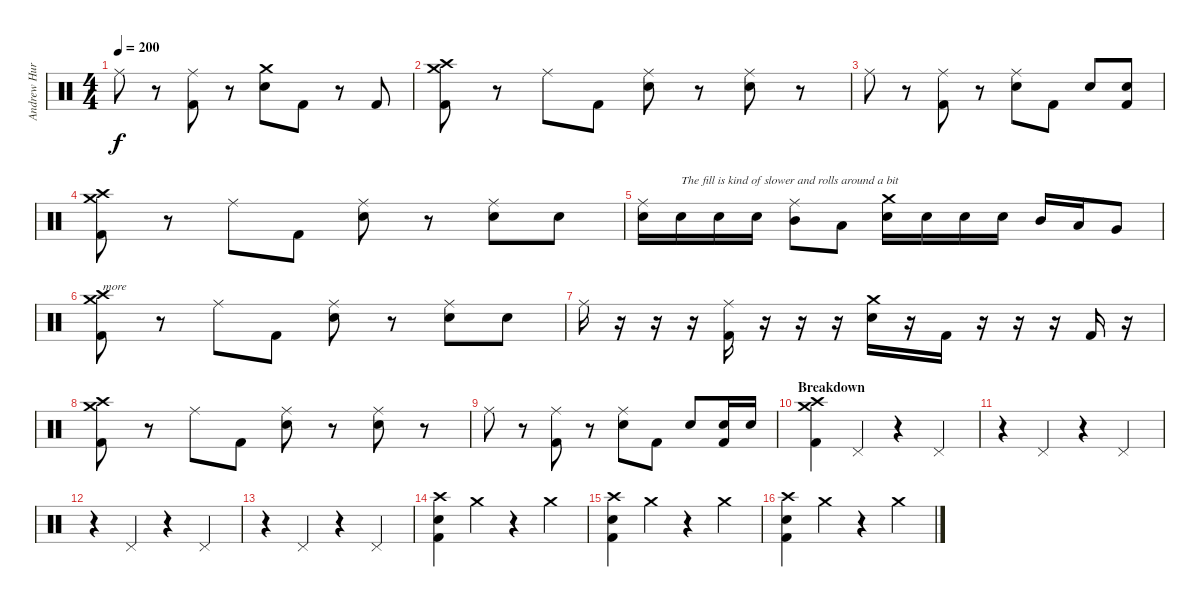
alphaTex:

\track ("Andrew Hurley (Drums)" "Andrew Hur") {instrument percussion}
\staff {score}
\articulation defaults
\ts (4 4)
\tempo 200
\clef neutral
\ks c "Ride (middle)".8{dy f}
r.8 ("Ride (middle)" "Kick (hit) 2").8 r.8 ("Crash medium (hit)" "Electric Snare (hit)").8 "Kick (hit) 2".8 r.8 "Kick (hit) 2".8 |
("Crash medium (hit)" "Crash high (hit)" "Kick (hit) 2").8 r.8 "Ride (middle)".8 "Kick (hit) 2".8 ("Ride (middle)" "Electric Snare (hit)").8 r.8 ("Ride (middle)" "Electric Snare (hit)").8 r.8 |
"Ride (middle)".8 r.8 ("Ride (middle)" "Kick (hit) 2").8 r.8 ("Ride (middle)" "Electric Snare (hit)").8 "Kick (hit) 2".8 "Electric Snare (hit)".8 ("Electric Snare (hit)" "Kick (hit) 2").8 |
("Crash medium (hit)" "Crash high (hit)" "Kick (hit) 2").8 r.8 "Ride (middle)".8 "Kick (hit) 2".8 ("Ride (middle)" "Electric Snare (hit)").8 r.8 ("Ride (middle)" "Electric Snare (hit)").8 "Electric Snare (hit)".8 |
("Ride (middle)" "Electric Snare (hit)").16 "Electric Snare (hit)".16{txt "The fill is kind of slower and rolls around a bit"} "Snare (hit) 2".16 "Snare (hit) 2".16 ("Ride (middle)" "Mid Tom (hit)").8 "Low Tom (hit)".8 ("Crash medium (hit)" "Electric Snare (hit)").16 "Electric Snare (hit)".16 "Electric Snare (hit)".16 "Snare (hit) 2".16 "Mid Tom (hit)".16 "Low Tom (hit)".16 "Very Low Tom (hit)".8 |
("Crash medium (hit)" "Crash high (hit)" "Kick (hit) 2").8{txt "more"} r.8 "Ride (middle)".8 "Kick (hit) 2".8 ("Ride (middle)" "Electric Snare (hit)").8 r.8 ("Ride (middle)" "Electric Snare (hit)").8 "Electric Snare (hit)".8 |
"Ride (middle)".16 r.16 r.16 r.16 ("Ride (middle)" "Kick (hit) 2").16 r.16 r.16 r.16 ("Crash medium (hit)" "Electric Snare (hit)").16 r.16 "Kick (hit) 2".16 r.16 r.16 r.16 "Kick (hit) 2".16 r.16 |
("Crash medium (hit)" "Crash high (hit)" "Kick (hit) 2").8 r.8 "Ride (middle)".8 "Kick (hit) 2".8 ("Ride (middle)" "Electric Snare (hit)").8 r.8 ("Ride (middle)" "Electric Snare (hit)").8 r.8 |
"Ride (middle)".8 r.8 ("Ride (middle)" "Kick (hit) 2").8 r.8 ("Ride (middle)" "Electric Snare (hit)").8 "Kick (hit) 2".8 "Electric Snare (hit)".8 ("Electric Snare (hit)" "Kick (hit) 2").16 "Electric Snare (hit)".16 |
\section ("" "Breakdown")
("Crash medium (hit)" "Crash high (hit)" "Kick (hit) 2").4 "Pedal Hi-Hat (hit)".4 r.4 "Pedal Hi-Hat (hit)".4 |
r.4 "Pedal Hi-Hat (hit)".4 r.4 "Pedal Hi-Hat (hit)".4 |
r.4 "Pedal Hi-Hat (hit)".4 r.4 "Pedal Hi-Hat (hit)".4 |
r.4 "Pedal Hi-Hat (hit)".4 r.4 "Pedal Hi-Hat (hit)".4 |
("Crash high (hit)" "Electric Snare (hit)" "Kick (hit) 2").4 "Crash medium (hit)".4 r.4 "Crash medium (hit)".4 |
("Crash high (hit)" "Electric Snare (hit)" "Kick (hit) 2").4 "Crash medium (hit)".4 r.4 "Crash medium (hit)".4 |
("Crash high (hit)" "Electric Snare (hit)" "Kick (hit) 2").4 "Crash medium (hit)".4 r.4 "Crash medium (hit)".4
